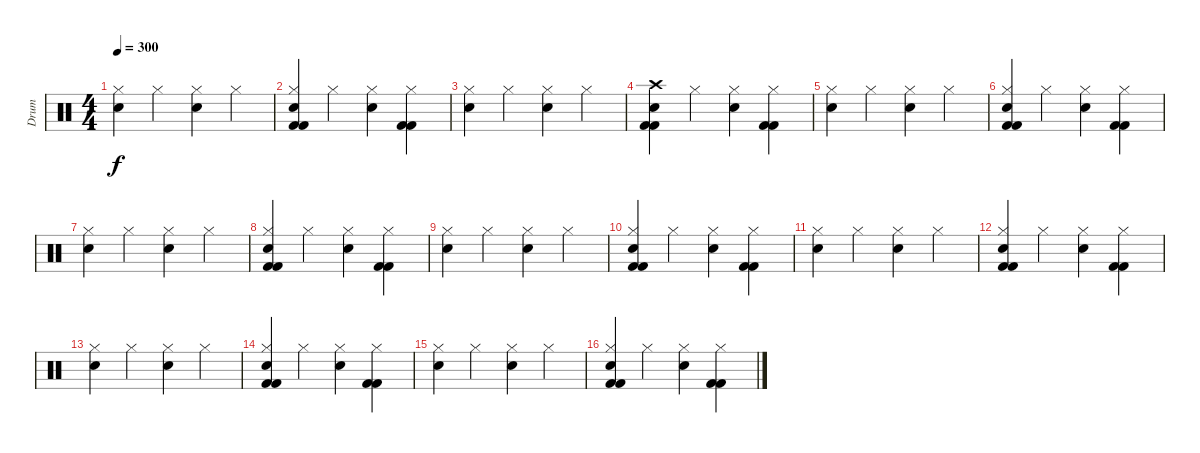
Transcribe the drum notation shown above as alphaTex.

\track ("Drum" "Drum") {instrument percussion}
\staff {score}
\articulation defaults
\ts (4 4)
\tempo 300
\clef neutral
\ks c
("Electric Snare (hit)" "Hi-Hat (closed)").4{dy f} "Hi-Hat (closed)".4 ("Electric Snare (hit)" "Hi-Hat (closed)").4 "Hi-Hat (closed)".4 |
("Electric Snare (hit)" "Hi-Hat (closed)" "Kick (hit) 2" "Kick (hit) 2").4 "Hi-Hat (closed)".4 ("Electric Snare (hit)" "Hi-Hat (closed)").4 ("Hi-Hat (closed)" "Kick (hit) 2" "Kick (hit) 2").4 |
("Electric Snare (hit)" "Hi-Hat (closed)").4 "Hi-Hat (closed)".4 ("Electric Snare (hit)" "Hi-Hat (closed)").4 "Hi-Hat (closed)".4 |
("Crash high (hit)" "Electric Snare (hit)" "Kick (hit) 2" "Kick (hit) 2").4 "Hi-Hat (closed)".4 ("Electric Snare (hit)" "Hi-Hat (closed)").4 ("Hi-Hat (closed)" "Kick (hit) 2" "Kick (hit) 2").4 |
("Electric Snare (hit)" "Hi-Hat (closed)").4 "Hi-Hat (closed)".4 ("Electric Snare (hit)" "Hi-Hat (closed)").4 "Hi-Hat (closed)".4 |
("Electric Snare (hit)" "Hi-Hat (closed)" "Kick (hit) 2" "Kick (hit) 2").4 "Hi-Hat (closed)".4 ("Electric Snare (hit)" "Hi-Hat (closed)").4 ("Hi-Hat (closed)" "Kick (hit) 2" "Kick (hit) 2").4 |
("Electric Snare (hit)" "Hi-Hat (closed)").4 "Hi-Hat (closed)".4 ("Electric Snare (hit)" "Hi-Hat (closed)").4 "Hi-Hat (closed)".4 |
("Electric Snare (hit)" "Hi-Hat (closed)" "Kick (hit) 2" "Kick (hit) 2").4 "Hi-Hat (closed)".4 ("Electric Snare (hit)" "Hi-Hat (closed)").4 ("Hi-Hat (closed)" "Kick (hit) 2" "Kick (hit) 2").4 |
("Electric Snare (hit)" "Hi-Hat (closed)").4 "Hi-Hat (closed)".4 ("Electric Snare (hit)" "Hi-Hat (closed)").4 "Hi-Hat (closed)".4 |
("Electric Snare (hit)" "Hi-Hat (closed)" "Kick (hit) 2" "Kick (hit) 2").4 "Hi-Hat (closed)".4 ("Electric Snare (hit)" "Hi-Hat (closed)").4 ("Hi-Hat (closed)" "Kick (hit) 2" "Kick (hit) 2").4 |
("Electric Snare (hit)" "Hi-Hat (closed)").4 "Hi-Hat (closed)".4 ("Electric Snare (hit)" "Hi-Hat (closed)").4 "Hi-Hat (closed)".4 |
("Electric Snare (hit)" "Hi-Hat (closed)" "Kick (hit) 2" "Kick (hit) 2").4 "Hi-Hat (closed)".4 ("Electric Snare (hit)" "Hi-Hat (closed)").4 ("Hi-Hat (closed)" "Kick (hit) 2" "Kick (hit) 2").4 |
("Electric Snare (hit)" "Hi-Hat (closed)").4 "Hi-Hat (closed)".4 ("Electric Snare (hit)" "Hi-Hat (closed)").4 "Hi-Hat (closed)".4 |
("Electric Snare (hit)" "Hi-Hat (closed)" "Kick (hit) 2" "Kick (hit) 2").4 "Hi-Hat (closed)".4 ("Electric Snare (hit)" "Hi-Hat (closed)").4 ("Hi-Hat (closed)" "Kick (hit) 2" "Kick (hit) 2").4 |
("Electric Snare (hit)" "Hi-Hat (closed)").4 "Hi-Hat (closed)".4 ("Electric Snare (hit)" "Hi-Hat (closed)").4 "Hi-Hat (closed)".4 |
("Electric Snare (hit)" "Hi-Hat (closed)" "Kick (hit) 2" "Kick (hit) 2").4 "Hi-Hat (closed)".4 ("Electric Snare (hit)" "Hi-Hat (closed)").4 ("Hi-Hat (closed)" "Kick (hit) 2" "Kick (hit) 2").4
